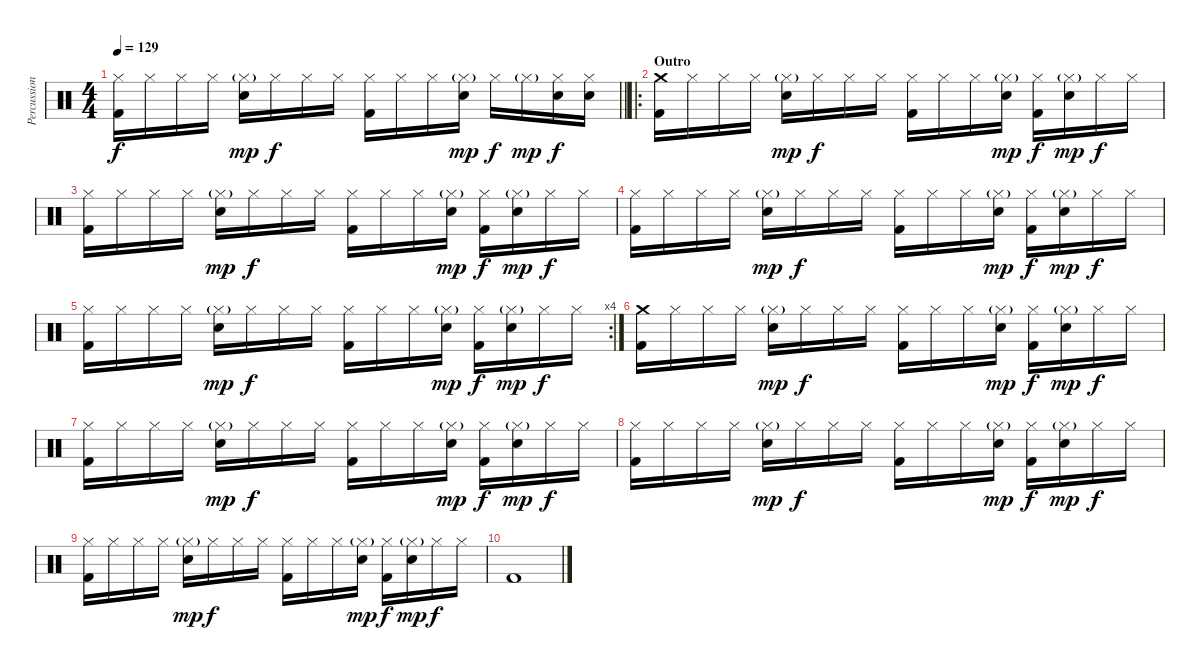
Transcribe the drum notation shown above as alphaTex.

\track ("Percussion" "Percussion") {instrument percussion}
\staff {score}
\articulation defaults
\ts (4 4)
\tempo 129
\clef neutral
\barLineRight lightlight
\ks c
("Hi-Hat (closed)" "Kick (hit) 2").16{dy f} "Hi-Hat (closed)".16 "Hi-Hat (closed)".16 "Hi-Hat (closed)".16 ("Hi-Hat (closed)"{g} "Electric Snare (hit)").16{dy mp} "Hi-Hat (closed)".16{dy f} "Hi-Hat (closed)".16 "Hi-Hat (closed)".16 ("Hi-Hat (closed)" "Kick (hit) 2").16 "Hi-Hat (closed)".16 "Hi-Hat (closed)".16 ("Hi-Hat (closed)"{g} "Electric Snare (hit)").16{dy mp} "Hi-Hat (closed)".16{dy f} "Hi-Hat (closed)"{g}.16{dy mp} ("Hi-Hat (closed)" "Electric Snare (hit)").16{dy f} ("Hi-Hat (closed)" "Electric Snare (hit)").16 |
\ro
\section ("" "Outro")
("Crash medium (hit)" "Kick (hit) 2").16 "Hi-Hat (closed)".16 "Hi-Hat (closed)".16 "Hi-Hat (closed)".16 ("Hi-Hat (closed)"{g} "Electric Snare (hit)").16{dy mp} "Hi-Hat (closed)".16{dy f} "Hi-Hat (closed)".16 "Hi-Hat (closed)".16 ("Hi-Hat (closed)" "Kick (hit) 2").16 "Hi-Hat (closed)".16 "Hi-Hat (closed)".16 ("Hi-Hat (closed)"{g} "Electric Snare (hit)").16{dy mp} ("Hi-Hat (closed)" "Kick (hit) 2").16{dy f} ("Hi-Hat (closed)"{g} "Electric Snare (hit)").16{dy mp} "Hi-Hat (closed)".16{dy f} "Hi-Hat (closed)".16 |
("Hi-Hat (closed)" "Kick (hit) 2").16 "Hi-Hat (closed)".16 "Hi-Hat (closed)".16 "Hi-Hat (closed)".16 ("Hi-Hat (closed)"{g} "Electric Snare (hit)").16{dy mp} "Hi-Hat (closed)".16{dy f} "Hi-Hat (closed)".16 "Hi-Hat (closed)".16 ("Hi-Hat (closed)" "Kick (hit) 2").16 "Hi-Hat (closed)".16 "Hi-Hat (closed)".16 ("Hi-Hat (closed)"{g} "Electric Snare (hit)").16{dy mp} ("Hi-Hat (closed)" "Kick (hit) 2").16{dy f} ("Hi-Hat (closed)"{g} "Electric Snare (hit)").16{dy mp} "Hi-Hat (closed)".16{dy f} "Hi-Hat (closed)".16 |
("Hi-Hat (closed)" "Kick (hit) 2").16 "Hi-Hat (closed)".16 "Hi-Hat (closed)".16 "Hi-Hat (closed)".16 ("Hi-Hat (closed)"{g} "Electric Snare (hit)").16{dy mp} "Hi-Hat (closed)".16{dy f} "Hi-Hat (closed)".16 "Hi-Hat (closed)".16 ("Hi-Hat (closed)" "Kick (hit) 2").16 "Hi-Hat (closed)".16 "Hi-Hat (closed)".16 ("Hi-Hat (closed)"{g} "Electric Snare (hit)").16{dy mp} ("Hi-Hat (closed)" "Kick (hit) 2").16{dy f} ("Hi-Hat (closed)"{g} "Electric Snare (hit)").16{dy mp} "Hi-Hat (closed)".16{dy f} "Hi-Hat (closed)".16 |
\rc 4
("Hi-Hat (closed)" "Kick (hit) 2").16 "Hi-Hat (closed)".16 "Hi-Hat (closed)".16 "Hi-Hat (closed)".16 ("Hi-Hat (closed)"{g} "Electric Snare (hit)").16{dy mp} "Hi-Hat (closed)".16{dy f} "Hi-Hat (closed)".16 "Hi-Hat (closed)".16 ("Hi-Hat (closed)" "Kick (hit) 2").16 "Hi-Hat (closed)".16 "Hi-Hat (closed)".16 ("Hi-Hat (closed)"{g} "Electric Snare (hit)").16{dy mp} ("Hi-Hat (closed)" "Kick (hit) 2").16{dy f} ("Hi-Hat (closed)"{g} "Electric Snare (hit)").16{dy mp} "Hi-Hat (closed)".16{dy f} "Hi-Hat (closed)".16 |
("Crash medium (hit)" "Kick (hit) 2").16 "Hi-Hat (closed)".16 "Hi-Hat (closed)".16 "Hi-Hat (closed)".16 ("Hi-Hat (closed)"{g} "Electric Snare (hit)").16{dy mp} "Hi-Hat (closed)".16{dy f} "Hi-Hat (closed)".16 "Hi-Hat (closed)".16 ("Hi-Hat (closed)" "Kick (hit) 2").16 "Hi-Hat (closed)".16 "Hi-Hat (closed)".16 ("Hi-Hat (closed)"{g} "Electric Snare (hit)").16{dy mp} ("Hi-Hat (closed)" "Kick (hit) 2").16{dy f} ("Hi-Hat (closed)"{g} "Electric Snare (hit)").16{dy mp} "Hi-Hat (closed)".16{dy f} "Hi-Hat (closed)".16 |
("Hi-Hat (closed)" "Kick (hit) 2").16 "Hi-Hat (closed)".16 "Hi-Hat (closed)".16 "Hi-Hat (closed)".16 ("Hi-Hat (closed)"{g} "Electric Snare (hit)").16{dy mp} "Hi-Hat (closed)".16{dy f} "Hi-Hat (closed)".16 "Hi-Hat (closed)".16 ("Hi-Hat (closed)" "Kick (hit) 2").16 "Hi-Hat (closed)".16 "Hi-Hat (closed)".16 ("Hi-Hat (closed)"{g} "Electric Snare (hit)").16{dy mp} ("Hi-Hat (closed)" "Kick (hit) 2").16{dy f} ("Hi-Hat (closed)"{g} "Electric Snare (hit)").16{dy mp} "Hi-Hat (closed)".16{dy f} "Hi-Hat (closed)".16 |
("Hi-Hat (closed)" "Kick (hit) 2").16 "Hi-Hat (closed)".16 "Hi-Hat (closed)".16 "Hi-Hat (closed)".16 ("Hi-Hat (closed)"{g} "Electric Snare (hit)").16{dy mp} "Hi-Hat (closed)".16{dy f} "Hi-Hat (closed)".16 "Hi-Hat (closed)".16 ("Hi-Hat (closed)" "Kick (hit) 2").16 "Hi-Hat (closed)".16 "Hi-Hat (closed)".16 ("Hi-Hat (closed)"{g} "Electric Snare (hit)").16{dy mp} ("Hi-Hat (closed)" "Kick (hit) 2").16{dy f} ("Hi-Hat (closed)"{g} "Electric Snare (hit)").16{dy mp} "Hi-Hat (closed)".16{dy f} "Hi-Hat (closed)".16 |
("Hi-Hat (closed)" "Kick (hit) 2").16 "Hi-Hat (closed)".16 "Hi-Hat (closed)".16 "Hi-Hat (closed)".16 ("Hi-Hat (closed)"{g} "Electric Snare (hit)").16{dy mp} "Hi-Hat (closed)".16{dy f} "Hi-Hat (closed)".16 "Hi-Hat (closed)".16 ("Hi-Hat (closed)" "Kick (hit) 2").16 "Hi-Hat (closed)".16 "Hi-Hat (closed)".16 ("Hi-Hat (closed)"{g} "Electric Snare (hit)").16{dy mp} ("Hi-Hat (closed)" "Kick (hit) 2").16{dy f} ("Hi-Hat (closed)"{g} "Electric Snare (hit)").16{dy mp} "Hi-Hat (closed)".16{dy f} "Hi-Hat (closed)".16 |
"Kick (hit) 2".1
